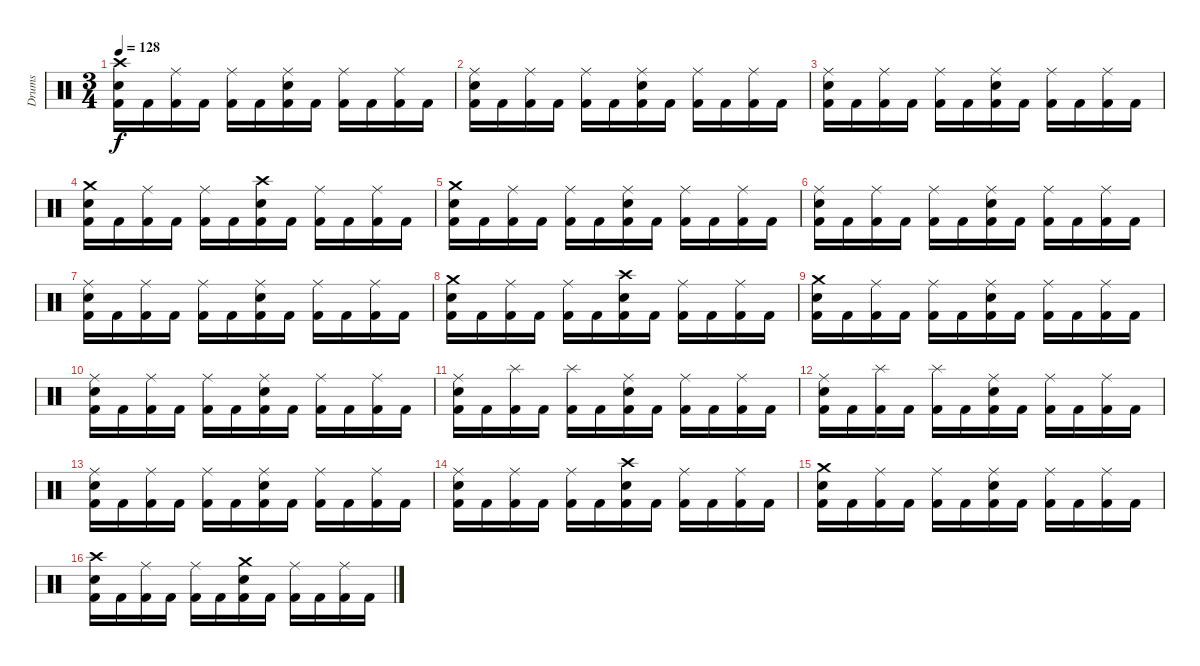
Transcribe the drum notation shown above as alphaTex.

\track ("Drums" "Drums") {instrument percussion}
\staff {score}
\articulation defaults
\ts (3 4)
\tempo 128
\clef neutral
\ks c
("Crash high (hit)" "Snare (hit) 2" "Kick (hit) 2").16{dy f} "Kick (hit) 2".16 ("Ride (middle)" "Kick (hit) 2").16 "Kick (hit) 2".16 ("Ride (middle)" "Kick (hit) 2").16 "Kick (hit) 2".16 ("Ride (middle)" "Snare (hit) 2" "Kick (hit) 2").16 "Kick (hit) 2".16 ("Ride (middle)" "Kick (hit) 2").16 "Kick (hit) 2".16 ("Ride (middle)" "Kick (hit) 2").16 "Kick (hit) 2".16 |
("Ride (middle)" "Snare (hit) 2" "Kick (hit) 2").16 "Kick (hit) 2".16 ("Ride (middle)" "Kick (hit) 2").16 "Kick (hit) 2".16 ("Ride (middle)" "Kick (hit) 2").16 "Kick (hit) 2".16 ("Ride (middle)" "Snare (hit) 2" "Kick (hit) 2").16 "Kick (hit) 2".16 ("Ride (middle)" "Kick (hit) 2").16 "Kick (hit) 2".16 ("Ride (middle)" "Kick (hit) 2").16 "Kick (hit) 2".16 |
("Ride (middle)" "Snare (hit) 2" "Kick (hit) 2").16 "Kick (hit) 2".16 ("Ride (middle)" "Kick (hit) 2").16 "Kick (hit) 2".16 ("Ride (middle)" "Kick (hit) 2").16 "Kick (hit) 2".16 ("Ride (middle)" "Snare (hit) 2" "Kick (hit) 2").16 "Kick (hit) 2".16 ("Ride (middle)" "Kick (hit) 2").16 "Kick (hit) 2".16 ("Ride (middle)" "Kick (hit) 2").16 "Kick (hit) 2".16 |
("Crash medium (hit)" "Snare (hit) 2" "Kick (hit) 2").16 "Kick (hit) 2".16 ("Ride (middle)" "Kick (hit) 2").16 "Kick (hit) 2".16 ("Ride (middle)" "Kick (hit) 2").16 "Kick (hit) 2".16 ("Crash high (hit)" "Snare (hit) 2" "Kick (hit) 2").16 "Kick (hit) 2".16 ("Ride (middle)" "Kick (hit) 2").16 "Kick (hit) 2".16 ("Ride (middle)" "Kick (hit) 2").16 "Kick (hit) 2".16 |
("Crash medium (hit)" "Snare (hit) 2" "Kick (hit) 2").16 "Kick (hit) 2".16 ("Ride (middle)" "Kick (hit) 2").16 "Kick (hit) 2".16 ("Ride (middle)" "Kick (hit) 2").16 "Kick (hit) 2".16 ("Ride (middle)" "Snare (hit) 2" "Kick (hit) 2").16 "Kick (hit) 2".16 ("Ride (middle)" "Kick (hit) 2").16 "Kick (hit) 2".16 ("Ride (middle)" "Kick (hit) 2").16 "Kick (hit) 2".16 |
("Ride (middle)" "Snare (hit) 2" "Kick (hit) 2").16 "Kick (hit) 2".16 ("Ride (middle)" "Kick (hit) 2").16 "Kick (hit) 2".16 ("Ride (middle)" "Kick (hit) 2").16 "Kick (hit) 2".16 ("Ride (middle)" "Snare (hit) 2" "Kick (hit) 2").16 "Kick (hit) 2".16 ("Ride (middle)" "Kick (hit) 2").16 "Kick (hit) 2".16 ("Ride (middle)" "Kick (hit) 2").16 "Kick (hit) 2".16 |
("Ride (middle)" "Snare (hit) 2" "Kick (hit) 2").16 "Kick (hit) 2".16 ("Ride (middle)" "Kick (hit) 2").16 "Kick (hit) 2".16 ("Ride (middle)" "Kick (hit) 2").16 "Kick (hit) 2".16 ("Ride (middle)" "Snare (hit) 2" "Kick (hit) 2").16 "Kick (hit) 2".16 ("Ride (middle)" "Kick (hit) 2").16 "Kick (hit) 2".16 ("Ride (middle)" "Kick (hit) 2").16 "Kick (hit) 2".16 |
("Crash medium (hit)" "Snare (hit) 2" "Kick (hit) 2").16 "Kick (hit) 2".16 ("Ride (middle)" "Kick (hit) 2").16 "Kick (hit) 2".16 ("Ride (middle)" "Kick (hit) 2").16 "Kick (hit) 2".16 ("Crash high (hit)" "Snare (hit) 2" "Kick (hit) 2").16 "Kick (hit) 2".16 ("Ride (middle)" "Kick (hit) 2").16 "Kick (hit) 2".16 ("Ride (middle)" "Kick (hit) 2").16 "Kick (hit) 2".16 |
("Crash medium (hit)" "Snare (hit) 2" "Kick (hit) 2").16 "Kick (hit) 2".16 ("Ride (middle)" "Kick (hit) 2").16 "Kick (hit) 2".16 ("Ride (middle)" "Kick (hit) 2").16 "Kick (hit) 2".16 ("Ride (middle)" "Snare (hit) 2" "Kick (hit) 2").16 "Kick (hit) 2".16 ("Ride (middle)" "Kick (hit) 2").16 "Kick (hit) 2".16 ("Ride (middle)" "Kick (hit) 2").16 "Kick (hit) 2".16 |
("Ride (middle)" "Snare (hit) 2" "Kick (hit) 2").16 "Kick (hit) 2".16 ("Ride (middle)" "Kick (hit) 2").16 "Kick (hit) 2".16 ("Ride (middle)" "Kick (hit) 2").16 "Kick (hit) 2".16 ("Ride (middle)" "Snare (hit) 2" "Kick (hit) 2").16 "Kick (hit) 2".16 ("Ride (middle)" "Kick (hit) 2").16 "Kick (hit) 2".16 ("Ride (middle)" "Kick (hit) 2").16 "Kick (hit) 2".16 |
("Ride (middle)" "Snare (hit) 2" "Kick (hit) 2").16 "Kick (hit) 2".16 ("Splash (hit)" "Kick (hit) 2").16 "Kick (hit) 2".16 ("Splash (hit)" "Kick (hit) 2").16 "Kick (hit) 2".16 ("Ride (middle)" "Snare (hit) 2" "Kick (hit) 2").16 "Kick (hit) 2".16 ("Ride (middle)" "Kick (hit) 2").16 "Kick (hit) 2".16 ("Ride (middle)" "Kick (hit) 2").16 "Kick (hit) 2".16 |
("Ride (middle)" "Snare (hit) 2" "Kick (hit) 2").16 "Kick (hit) 2".16 ("Splash (hit)" "Kick (hit) 2").16 "Kick (hit) 2".16 ("Splash (hit)" "Kick (hit) 2").16 "Kick (hit) 2".16 ("Ride (middle)" "Snare (hit) 2" "Kick (hit) 2").16 "Kick (hit) 2".16 ("Ride (middle)" "Kick (hit) 2").16 "Kick (hit) 2".16 ("Ride (middle)" "Kick (hit) 2").16 "Kick (hit) 2".16 |
("Ride (middle)" "Snare (hit) 2" "Kick (hit) 2").16 "Kick (hit) 2".16 ("Ride (middle)" "Kick (hit) 2").16 "Kick (hit) 2".16 ("Ride (middle)" "Kick (hit) 2").16 "Kick (hit) 2".16 ("Ride (middle)" "Snare (hit) 2" "Kick (hit) 2").16 "Kick (hit) 2".16 ("Ride (middle)" "Kick (hit) 2").16 "Kick (hit) 2".16 ("Ride (middle)" "Kick (hit) 2").16 "Kick (hit) 2".16 |
("Ride (middle)" "Snare (hit) 2" "Kick (hit) 2").16 "Kick (hit) 2".16 ("Ride (middle)" "Kick (hit) 2").16 "Kick (hit) 2".16 ("Ride (middle)" "Kick (hit) 2").16 "Kick (hit) 2".16 ("Crash high (hit)" "Snare (hit) 2" "Kick (hit) 2").16 "Kick (hit) 2".16 ("Ride (middle)" "Kick (hit) 2").16 "Kick (hit) 2".16 ("Ride (middle)" "Kick (hit) 2").16 "Kick (hit) 2".16 |
("Crash medium (hit)" "Snare (hit) 2" "Kick (hit) 2").16 "Kick (hit) 2".16 ("Ride (middle)" "Kick (hit) 2").16 "Kick (hit) 2".16 ("Ride (middle)" "Kick (hit) 2").16 "Kick (hit) 2".16 ("Ride (middle)" "Snare (hit) 2" "Kick (hit) 2").16 "Kick (hit) 2".16 ("Ride (middle)" "Kick (hit) 2").16 "Kick (hit) 2".16 ("Ride (middle)" "Kick (hit) 2").16 "Kick (hit) 2".16 |
("Crash high (hit)" "Snare (hit) 2" "Kick (hit) 2").16 "Kick (hit) 2".16 ("Ride (middle)" "Kick (hit) 2").16 "Kick (hit) 2".16 ("Ride (middle)" "Kick (hit) 2").16 "Kick (hit) 2".16 ("Crash medium (hit)" "Snare (hit) 2" "Kick (hit) 2").16 "Kick (hit) 2".16 ("Ride (middle)" "Kick (hit) 2").16 "Kick (hit) 2".16 ("Ride (middle)" "Kick (hit) 2").16 "Kick (hit) 2".16
